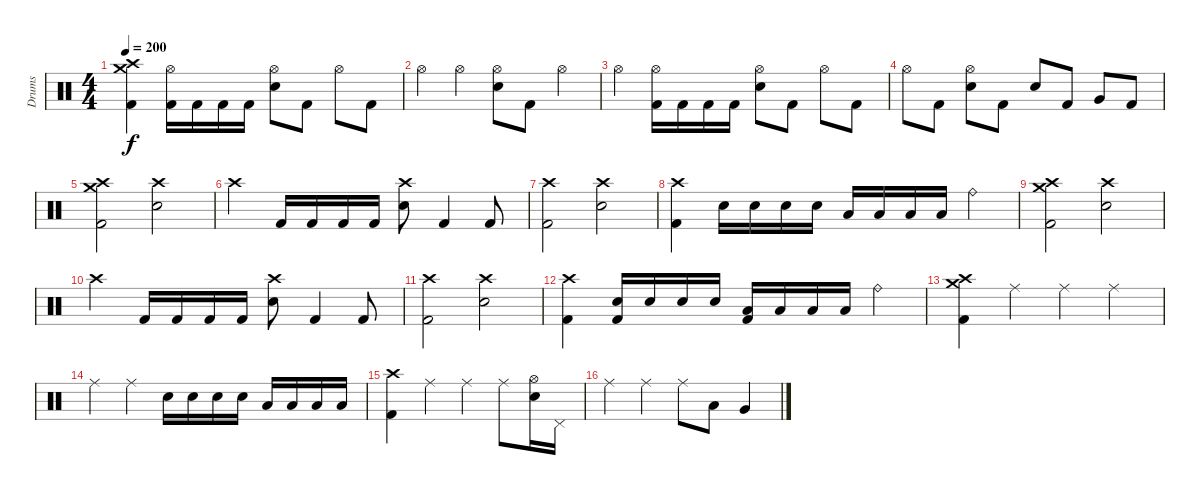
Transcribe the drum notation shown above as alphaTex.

\track ("Drums" "Drums") {instrument percussion}
\staff {score}
\articulation defaults
\ts (4 4)
\tempo 200
\clef neutral
\ks c
("Crash high (hit)" "Crash medium (hit)" "Kick (hit) 2").4{dy f} ("Hi-Hat (open)" "Kick (hit) 2").16 "Kick (hit) 2".16 "Kick (hit) 2".16 "Kick (hit) 2".16 ("Hi-Hat (open)" "Electric Snare (hit)").8 "Kick (hit) 2".8 "Hi-Hat (open)".8 "Kick (hit) 2".8 |
"Hi-Hat (open)".4 "Hi-Hat (open)".4 ("Hi-Hat (open)" "Electric Snare (hit)").8 "Kick (hit) 2".8 "Hi-Hat (open)".4 |
"Hi-Hat (open)".4 ("Hi-Hat (open)" "Kick (hit) 2").16 "Kick (hit) 2".16 "Kick (hit) 2".16 "Kick (hit) 2".16 ("Hi-Hat (open)" "Electric Snare (hit)").8 "Kick (hit) 2".8 "Hi-Hat (open)".8 "Kick (hit) 2".8 |
"Hi-Hat (open)".8 "Kick (hit) 2".8 ("Hi-Hat (open)" "Electric Snare (hit)").8 "Kick (hit) 2".8 "Electric Snare (hit)".8 "Kick (hit) 2".8 "Very Low Tom (hit)".8 "Kick (hit) 2".8 |
("Crash high (hit)" "Crash medium (hit)" "Kick (hit) 2").2 ("Crash high (hit)" "Electric Snare (hit)").2 |
"Crash high (hit)".4 "Kick (hit) 2".16 "Kick (hit) 2".16 "Kick (hit) 2".16 "Kick (hit) 2".16 ("Crash high (hit)" "Electric Snare (hit)").8 "Kick (hit) 2".4 "Kick (hit) 2".8 |
("Crash high (hit)" "Kick (hit) 2").2 ("Crash high (hit)" "Electric Snare (hit)").2 |
("Crash high (hit)" "Kick (hit) 2").4 "Electric Snare (hit)".16 "Electric Snare (hit)".16 "Electric Snare (hit)".16 "Electric Snare (hit)".16 "Low Tom (hit)".16 "Low Tom (hit)".16 "Low Tom (hit)".16 "Low Tom (hit)".16 "Ride (bell)".4 |
("Crash high (hit)" "Crash medium (hit)" "Kick (hit) 2").2 ("Crash high (hit)" "Electric Snare (hit)").2 |
"Crash high (hit)".4 "Kick (hit) 2".16 "Kick (hit) 2".16 "Kick (hit) 2".16 "Kick (hit) 2".16 ("Crash high (hit)" "Electric Snare (hit)").8 "Kick (hit) 2".4 "Kick (hit) 2".8 |
("Crash high (hit)" "Kick (hit) 2").2 ("Crash high (hit)" "Electric Snare (hit)").2 |
("Crash high (hit)" "Kick (hit) 2").4 ("Electric Snare (hit)" "Kick (hit) 2").16 "Electric Snare (hit)".16 "Electric Snare (hit)".16 "Electric Snare (hit)".16 ("Low Tom (hit)" "Kick (hit) 2").16 "Low Tom (hit)".16 "Low Tom (hit)".16 "Low Tom (hit)".16 "Ride (bell)".4 |
("Crash high (hit)" "Crash medium (hit)" "Kick (hit) 2").4 "Ride (middle)".4 "Ride (middle)".4 "Ride (middle)".4 |
"Ride (middle)".4 "Ride (middle)".4 "Electric Snare (hit)".16 "Electric Snare (hit)".16 "Electric Snare (hit)".16 "Electric Snare (hit)".16 "Low Tom (hit)".16 "Low Tom (hit)".16 "Low Tom (hit)".16 "Low Tom (hit)".16 |
("Crash high (hit)" "Kick (hit) 2").4 "Ride (middle)".4 "Ride (middle)".4 "Ride (middle)".8 ("Hi-Hat (open)" "Electric Snare (hit)").16 "Pedal Hi-Hat (hit)".16 |
"Ride (middle)".4 "Ride (middle)".4 "Ride (middle)".8 "Low Tom (hit)".8 "Very Low Tom (hit)".4
